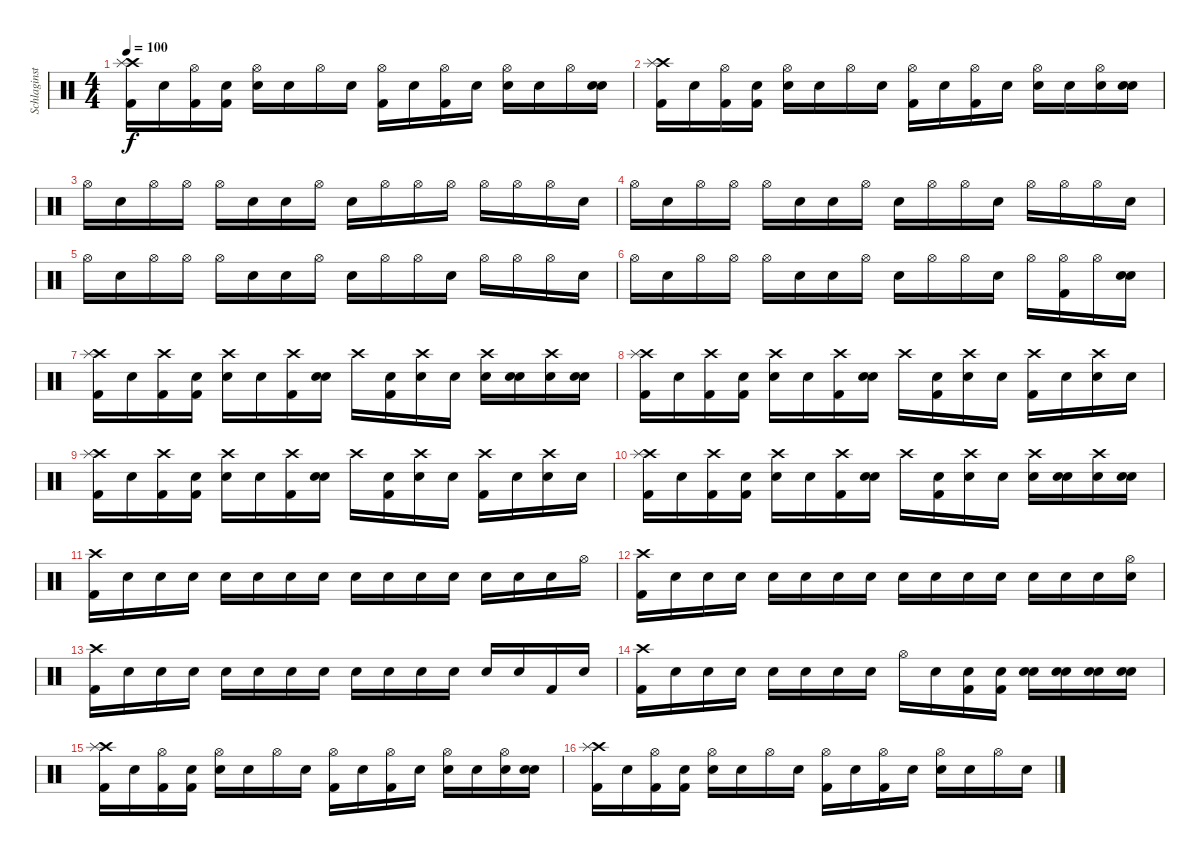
\track ("Schlaginstrumente - Auswahl" "Schlaginst") {instrument percussion}
\staff {score}
\articulation defaults
\ts (4 4)
\tempo 100
\clef neutral
\ks c
("Crash high (hit)" "Splash (hit)" "Kick (hit) 2").16{dy f} "Snare (hit)"{x}.16 ("Hi-Hat (open)" "Kick (hit) 2").16 ("Snare (hit)"{x} "Kick (hit) 2").16 ("Hi-Hat (open)" "Electric Snare (hit)").16 "Snare (hit)"{x}.16 "Hi-Hat (open)".16 "Snare (hit)"{x}.16 ("Hi-Hat (open)" "Kick (hit) 2").16 "Snare (hit)"{x}.16 ("Hi-Hat (open)" "Kick (hit) 2").16 "Snare (hit)"{x}.16 ("Hi-Hat (open)" "Electric Snare (hit)").16 "Snare (hit)"{x}.16 "Hi-Hat (open)".16 ("Snare (hit)"{x} "Electric Snare (hit)").16 |
("Crash high (hit)" "Splash (hit)" "Kick (hit) 2").16 "Snare (hit)"{x}.16 ("Hi-Hat (open)" "Kick (hit) 2").16 ("Snare (hit)"{x} "Kick (hit) 2").16 ("Hi-Hat (open)" "Electric Snare (hit)").16 "Snare (hit)"{x}.16 "Hi-Hat (open)".16 "Snare (hit)"{x}.16 ("Hi-Hat (open)" "Kick (hit) 2").16 "Snare (hit)"{x}.16 ("Hi-Hat (open)" "Kick (hit) 2").16 "Snare (hit)"{x}.16 ("Hi-Hat (open)" "Electric Snare (hit)").16 "Snare (hit)"{x}.16 ("Hi-Hat (open)" "Electric Snare (hit)").16 ("Snare (hit)"{x} "Electric Snare (hit)").16 |
"Hi-Hat (open)".16 "Snare (hit)"{x}.16 "Hi-Hat (open)".16 "Hi-Hat (open)".16 "Hi-Hat (open)".16 "Snare (hit)"{x}.16 "Snare (hit)"{x}.16 "Hi-Hat (open)".16 "Snare (hit)"{x}.16 "Hi-Hat (open)".16 "Hi-Hat (open)".16 "Hi-Hat (open)"{x}.16 "Hi-Hat (open)".16 "Hi-Hat (open)".16 "Hi-Hat (open)".16 "Snare (hit)"{x}.16 |
"Hi-Hat (open)".16 "Snare (hit)"{x}.16 "Hi-Hat (open)".16 "Hi-Hat (open)".16 "Hi-Hat (open)".16 "Snare (hit)"{x}.16 "Snare (hit)"{x}.16 "Hi-Hat (open)".16 "Snare (hit)"{x}.16 "Hi-Hat (open)".16 "Hi-Hat (open)".16 "Snare (hit)"{x}.16 "Hi-Hat (open)".16 "Hi-Hat (open)".16 "Hi-Hat (open)".16 "Snare (hit)"{x}.16 |
"Hi-Hat (open)".16 "Snare (hit)"{x}.16 "Hi-Hat (open)".16 "Hi-Hat (open)".16 "Hi-Hat (open)".16 "Snare (hit)"{x}.16 "Snare (hit)"{x}.16 "Hi-Hat (open)".16 "Snare (hit)"{x}.16 "Hi-Hat (open)".16 "Hi-Hat (open)".16 "Snare (hit)"{x}.16 "Hi-Hat (open)".16 "Hi-Hat (open)".16 "Hi-Hat (open)".16 "Snare (hit)"{x}.16 |
"Hi-Hat (open)".16 "Snare (hit)"{x}.16 "Hi-Hat (open)".16 "Hi-Hat (open)".16 "Hi-Hat (open)".16 "Snare (hit)"{x}.16 "Snare (hit)"{x}.16 "Hi-Hat (open)".16 "Snare (hit)"{x}.16 "Hi-Hat (open)".16 "Hi-Hat (open)".16 "Snare (hit)"{x}.16 "Hi-Hat (open)".16 ("Hi-Hat (open)" "Kick (hit) 2").16 "Hi-Hat (open)".16 ("Snare (hit)"{x} "Electric Snare (hit)").16 |
("Crash high (hit)" "Splash (hit)" "Kick (hit) 2").16 "Snare (hit)"{x}.16 ("Crash high (hit)" "Kick (hit) 2").16 ("Snare (hit)"{x} "Kick (hit) 2").16 ("Crash high (hit)" "Electric Snare (hit)").16 "Snare (hit)"{x}.16 ("Crash high (hit)" "Kick (hit) 2").16 ("Snare (hit)"{x} "Electric Snare (hit)").16 "Crash high (hit)".16 ("Snare (hit)"{x} "Kick (hit) 2").16 ("Crash high (hit)" "Electric Snare (hit)").16 "Snare (hit)"{x}.16 ("Crash high (hit)" "Electric Snare (hit)").16 ("Snare (hit)"{x} "Electric Snare (hit)").16 ("Crash high (hit)" "Electric Snare (hit)").16 ("Snare (hit)"{x} "Electric Snare (hit)").16 |
("Crash high (hit)" "Splash (hit)" "Kick (hit) 2").16 "Snare (hit)"{x}.16 ("Crash high (hit)" "Kick (hit) 2").16 ("Snare (hit)"{x} "Kick (hit) 2").16 ("Crash high (hit)" "Electric Snare (hit)").16 "Snare (hit)"{x}.16 ("Crash high (hit)" "Kick (hit) 2").16 ("Snare (hit)"{x} "Electric Snare (hit)").16 "Crash high (hit)".16 ("Snare (hit)"{x} "Kick (hit) 2").16 ("Crash high (hit)" "Electric Snare (hit)").16 "Snare (hit)"{x}.16 ("Crash high (hit)" "Kick (hit) 2").16 "Snare (hit)"{x}.16 ("Crash high (hit)" "Electric Snare (hit)").16 "Snare (hit)"{x}.16 |
("Crash high (hit)" "Splash (hit)" "Kick (hit) 2").16 "Snare (hit)"{x}.16 ("Crash high (hit)" "Kick (hit) 2").16 ("Snare (hit)"{x} "Kick (hit) 2").16 ("Crash high (hit)" "Electric Snare (hit)").16 "Snare (hit)"{x}.16 ("Crash high (hit)" "Kick (hit) 2").16 ("Snare (hit)"{x} "Electric Snare (hit)").16 "Crash high (hit)".16 ("Snare (hit)"{x} "Kick (hit) 2").16 ("Crash high (hit)" "Electric Snare (hit)").16 "Snare (hit)"{x}.16 ("Crash high (hit)" "Kick (hit) 2").16 "Snare (hit)"{x}.16 ("Crash high (hit)" "Electric Snare (hit)").16 "Snare (hit)"{x}.16 |
("Crash high (hit)" "Splash (hit)" "Kick (hit) 2").16 "Snare (hit)"{x}.16 ("Crash high (hit)" "Kick (hit) 2").16 ("Snare (hit)"{x} "Kick (hit) 2").16 ("Crash high (hit)" "Electric Snare (hit)").16 "Snare (hit)"{x}.16 ("Crash high (hit)" "Kick (hit) 2").16 ("Snare (hit)"{x} "Electric Snare (hit)").16 "Crash high (hit)".16 ("Snare (hit)"{x} "Kick (hit) 2").16 ("Crash high (hit)" "Electric Snare (hit)").16 "Snare (hit)"{x}.16 ("Crash high (hit)" "Electric Snare (hit)").16 ("Snare (hit)"{x} "Electric Snare (hit)").16 ("Crash high (hit)" "Electric Snare (hit)").16 ("Snare (hit)"{x} "Electric Snare (hit)").16 |
("Crash high (hit)" "Kick (hit) 2").16 "Snare (hit)"{x}.16 "Snare (hit)"{x}.16 "Snare (hit)"{x}.16 "Snare (hit)"{x}.16 "Snare (hit)"{x}.16 "Snare (hit)"{x}.16 "Snare (hit)"{x}.16 "Snare (hit)"{x}.16 "Snare (hit)"{x}.16 "Snare (hit)"{x}.16 "Snare (hit)"{x}.16 "Snare (hit)"{x}.16 "Snare (hit)"{x}.16 "Snare (hit)"{x}.16 "Hi-Hat (open)".16 |
("Crash high (hit)" "Kick (hit) 2").16 "Snare (hit)"{x}.16 "Snare (hit)"{x}.16 "Snare (hit)"{x}.16 "Snare (hit)"{x}.16 "Snare (hit)"{x}.16 "Snare (hit)"{x}.16 "Snare (hit)"{x}.16 "Snare (hit)"{x}.16 "Snare (hit)"{x}.16 "Snare (hit)"{x}.16 "Snare (hit)"{x}.16 "Snare (hit)"{x}.16 "Snare (hit)"{x}.16 "Snare (hit)"{x}.16 ("Hi-Hat (open)" "Snare (hit)"{x}).16 |
("Crash high (hit)" "Kick (hit) 2").16 "Snare (hit)"{x}.16 "Snare (hit)"{x}.16 "Snare (hit)"{x}.16 "Snare (hit)"{x}.16 "Snare (hit)"{x}.16 "Snare (hit)"{x}.16 "Snare (hit)"{x}.16 "Snare (hit)"{x}.16 "Snare (hit)"{x}.16 "Snare (hit)"{x}.16 "Snare (hit)"{x}.16 "Snare (hit)"{x}.16 "Snare (hit)"{x}.16 "Kick (hit) 2".16 "Snare (hit)"{x}.16 |
("Crash high (hit)" "Kick (hit) 2").16 "Snare (hit)"{x}.16 "Snare (hit)"{x}.16 "Snare (hit)"{x}.16 "Snare (hit)"{x}.16 "Snare (hit)"{x}.16 "Snare (hit)"{x}.16 "Snare (hit)"{x}.16 "Hi-Hat (open)".16 "Electric Snare (hit)".16 ("Snare (hit)"{x} "Kick (hit) 2").16 ("Snare (hit)"{x} "Kick (hit) 2").16 ("Snare (hit)"{x} "Electric Snare (hit)").16 ("Snare (hit)"{x} "Electric Snare (hit)").16 ("Snare (hit)"{x} "Electric Snare (hit)").16 ("Snare (hit)"{x} "Electric Snare (hit)").16 |
("Crash high (hit)" "Splash (hit)" "Kick (hit) 2").16 "Snare (hit)"{x}.16 ("Hi-Hat (open)" "Kick (hit) 2").16 ("Snare (hit)"{x} "Kick (hit) 2").16 ("Hi-Hat (open)" "Electric Snare (hit)").16 "Snare (hit)"{x}.16 "Hi-Hat (open)".16 "Snare (hit)"{x}.16 ("Hi-Hat (open)" "Kick (hit) 2").16 "Snare (hit)"{x}.16 ("Hi-Hat (open)" "Kick (hit) 2").16 "Snare (hit)"{x}.16 ("Hi-Hat (open)" "Electric Snare (hit)").16 "Snare (hit)"{x}.16 ("Hi-Hat (open)" "Electric Snare (hit)").16 ("Snare (hit)"{x} "Electric Snare (hit)").16 |
("Crash high (hit)" "Splash (hit)" "Kick (hit) 2").16 "Snare (hit)"{x}.16 ("Hi-Hat (open)" "Kick (hit) 2").16 ("Snare (hit)"{x} "Kick (hit) 2").16 ("Hi-Hat (open)" "Electric Snare (hit)").16 "Snare (hit)"{x}.16 "Hi-Hat (open)".16 "Snare (hit)"{x}.16 ("Hi-Hat (open)" "Kick (hit) 2").16 "Snare (hit)"{x}.16 ("Hi-Hat (open)" "Kick (hit) 2").16 "Snare (hit)"{x}.16 ("Hi-Hat (open)" "Electric Snare (hit)").16 "Snare (hit)"{x}.16 "Hi-Hat (open)".16 "Snare (hit)"{x}.16
